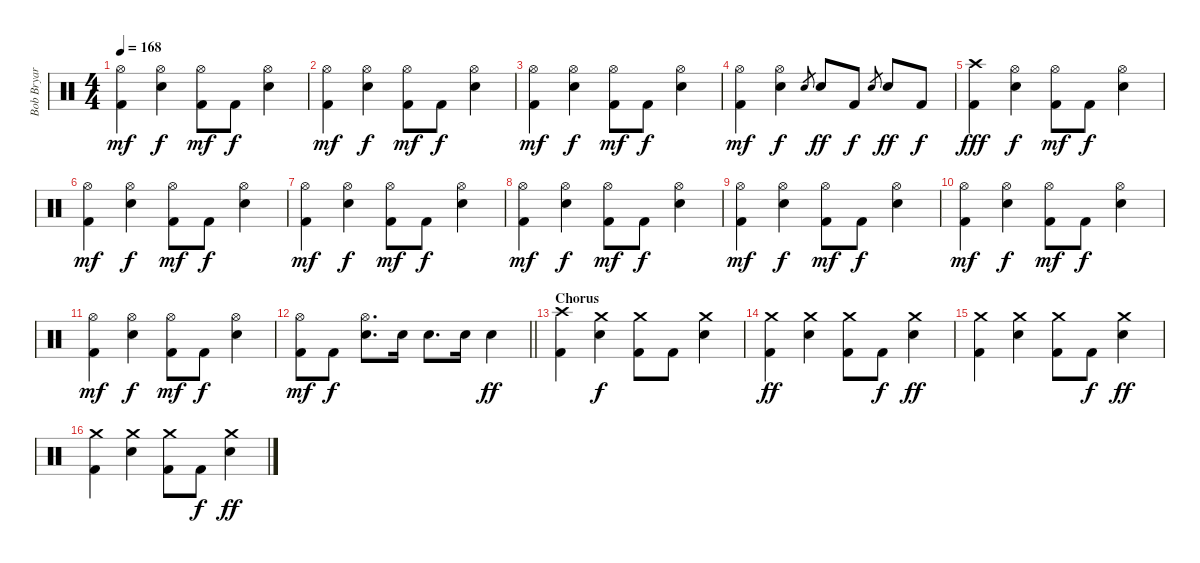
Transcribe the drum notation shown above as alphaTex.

\track ("Bob Bryar" "Bob Bryar") {instrument percussion}
\staff {score}
\articulation defaults
\ts (4 4)
\tempo 168
\clef neutral
\ks c
("Hi-Hat (open)" "Kick (hit) 2").4{dy mf} ("Hi-Hat (open)" "Electric Snare (hit)").4{dy f} ("Hi-Hat (open)" "Kick (hit) 2").8{dy mf} "Kick (hit) 2".8{dy f} ("Hi-Hat (open)" "Electric Snare (hit)").4 |
("Hi-Hat (open)" "Kick (hit) 2").4{dy mf} ("Hi-Hat (open)" "Electric Snare (hit)").4{dy f} ("Hi-Hat (open)" "Kick (hit) 2").8{dy mf} "Kick (hit) 2".8{dy f} ("Hi-Hat (open)" "Electric Snare (hit)").4 |
("Hi-Hat (open)" "Kick (hit) 2").4{dy mf} ("Hi-Hat (open)" "Electric Snare (hit)").4{dy f} ("Hi-Hat (open)" "Kick (hit) 2").8{dy mf} "Kick (hit) 2".8{dy f} ("Hi-Hat (open)" "Electric Snare (hit)").4 |
("Hi-Hat (open)" "Kick (hit) 2").4{dy mf} ("Hi-Hat (open)" "Electric Snare (hit)").4{dy f} "Electric Snare (hit)".8{gr} "Electric Snare (hit)".8{dy ff} "Kick (hit) 2".8{dy f} "Electric Snare (hit)".8{gr} "Electric Snare (hit)".8{dy ff} "Kick (hit) 2".8{dy f} |
("Crash high (hit)" "Kick (hit) 2").4{dy fff} ("Hi-Hat (open)" "Electric Snare (hit)").4{dy f} ("Hi-Hat (open)" "Kick (hit) 2").8{dy mf} "Kick (hit) 2".8{dy f} ("Hi-Hat (open)" "Electric Snare (hit)").4 |
("Hi-Hat (open)" "Kick (hit) 2").4{dy mf} ("Hi-Hat (open)" "Electric Snare (hit)").4{dy f} ("Hi-Hat (open)" "Kick (hit) 2").8{dy mf} "Kick (hit) 2".8{dy f} ("Hi-Hat (open)" "Electric Snare (hit)").4 |
("Hi-Hat (open)" "Kick (hit) 2").4{dy mf} ("Hi-Hat (open)" "Electric Snare (hit)").4{dy f} ("Hi-Hat (open)" "Kick (hit) 2").8{dy mf} "Kick (hit) 2".8{dy f} ("Hi-Hat (open)" "Electric Snare (hit)").4 |
("Hi-Hat (open)" "Kick (hit) 2").4{dy mf} ("Hi-Hat (open)" "Electric Snare (hit)").4{dy f} ("Hi-Hat (open)" "Kick (hit) 2").8{dy mf} "Kick (hit) 2".8{dy f} ("Hi-Hat (open)" "Electric Snare (hit)").4 |
("Hi-Hat (open)" "Kick (hit) 2").4{dy mf} ("Hi-Hat (open)" "Electric Snare (hit)").4{dy f} ("Hi-Hat (open)" "Kick (hit) 2").8{dy mf} "Kick (hit) 2".8{dy f} ("Hi-Hat (open)" "Electric Snare (hit)").4 |
("Hi-Hat (open)" "Kick (hit) 2").4{dy mf} ("Hi-Hat (open)" "Electric Snare (hit)").4{dy f} ("Hi-Hat (open)" "Kick (hit) 2").8{dy mf} "Kick (hit) 2".8{dy f} ("Hi-Hat (open)" "Electric Snare (hit)").4 |
("Hi-Hat (open)" "Kick (hit) 2").4{dy mf} ("Hi-Hat (open)" "Electric Snare (hit)").4{dy f} ("Hi-Hat (open)" "Kick (hit) 2").8{dy mf} "Kick (hit) 2".8{dy f} ("Hi-Hat (open)" "Electric Snare (hit)").4 |
\barLineRight lightlight
("Hi-Hat (open)" "Kick (hit) 2").8{dy mf} "Kick (hit) 2".8{dy f} ("Hi-Hat (open)" "Electric Snare (hit)").8{d} "Electric Snare (hit)".16 "Electric Snare (hit)".8{d} "Electric Snare (hit)".16 "Electric Snare (hit)".4{dy ff} |
\section ("" "Chorus")
("Crash high (hit)" "Kick (hit) 2").4 ("Crash medium (hit)" "Electric Snare (hit)").4{dy f} ("Crash medium (hit)" "Kick (hit) 2").8 "Kick (hit) 2".8 ("Crash medium (hit)" "Electric Snare (hit)").4 |
("Crash medium (hit)" "Kick (hit) 2").4{dy ff} ("Crash medium (hit)" "Electric Snare (hit)").4 ("Crash medium (hit)" "Kick (hit) 2").8 "Kick (hit) 2".8{dy f} ("Crash medium (hit)" "Electric Snare (hit)").4{dy ff} |
("Crash medium (hit)" "Kick (hit) 2").4 ("Crash medium (hit)" "Electric Snare (hit)").4 ("Crash medium (hit)" "Kick (hit) 2").8 "Kick (hit) 2".8{dy f} ("Crash medium (hit)" "Electric Snare (hit)").4{dy ff} |
("Crash medium (hit)" "Kick (hit) 2").4 ("Crash medium (hit)" "Electric Snare (hit)").4 ("Crash medium (hit)" "Kick (hit) 2").8 "Kick (hit) 2".8{dy f} ("Crash medium (hit)" "Electric Snare (hit)").4{dy ff}
